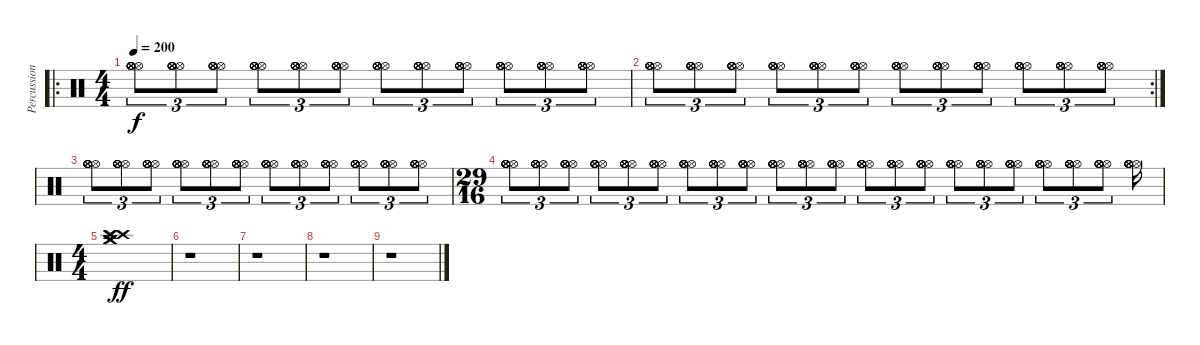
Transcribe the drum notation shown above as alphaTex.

\track ("Percussion" "Percussion") {instrument percussion}
\staff {score}
\articulation defaults
\ro
\ts (4 4)
\tempo 200
\clef neutral
\ks c
("Hi-Hat (open)" "Hi-Hat (open)" "Hi-Hat (open)" "Hi-Hat (open)" "Hi-Hat (open)" "Hi-Hat (open)").8{tu (3 2) dy f} ("Hi-Hat (open)" "Hi-Hat (open)" "Hi-Hat (open)" "Hi-Hat (open)" "Hi-Hat (open)" "Hi-Hat (open)").8{tu (3 2)} ("Hi-Hat (open)" "Hi-Hat (open)" "Hi-Hat (open)" "Hi-Hat (open)" "Hi-Hat (open)" "Hi-Hat (open)").8{tu (3 2)} ("Hi-Hat (open)" "Hi-Hat (open)" "Hi-Hat (open)" "Hi-Hat (open)" "Hi-Hat (open)" "Hi-Hat (open)").8{tu (3 2)} ("Hi-Hat (open)" "Hi-Hat (open)" "Hi-Hat (open)" "Hi-Hat (open)" "Hi-Hat (open)" "Hi-Hat (open)").8{tu (3 2)} ("Hi-Hat (open)" "Hi-Hat (open)" "Hi-Hat (open)" "Hi-Hat (open)" "Hi-Hat (open)" "Hi-Hat (open)").8{tu (3 2)} ("Hi-Hat (open)" "Hi-Hat (open)" "Hi-Hat (open)" "Hi-Hat (open)" "Hi-Hat (open)" "Hi-Hat (open)").8{tu (3 2)} ("Hi-Hat (open)" "Hi-Hat (open)" "Hi-Hat (open)" "Hi-Hat (open)" "Hi-Hat (open)" "Hi-Hat (open)").8{tu (3 2)} ("Hi-Hat (open)" "Hi-Hat (open)" "Hi-Hat (open)" "Hi-Hat (open)" "Hi-Hat (open)" "Hi-Hat (open)").8{tu (3 2)} ("Hi-Hat (open)" "Hi-Hat (open)" "Hi-Hat (open)" "Hi-Hat (open)" "Hi-Hat (open)" "Hi-Hat (open)").8{tu (3 2)} ("Hi-Hat (open)" "Hi-Hat (open)" "Hi-Hat (open)" "Hi-Hat (open)" "Hi-Hat (open)" "Hi-Hat (open)").8{tu (3 2)} ("Hi-Hat (open)" "Hi-Hat (open)" "Hi-Hat (open)" "Hi-Hat (open)" "Hi-Hat (open)" "Hi-Hat (open)").8{tu (3 2)} |
\rc 2
("Hi-Hat (open)" "Hi-Hat (open)" "Hi-Hat (open)" "Hi-Hat (open)" "Hi-Hat (open)" "Hi-Hat (open)").8{tu (3 2)} ("Hi-Hat (open)" "Hi-Hat (open)" "Hi-Hat (open)" "Hi-Hat (open)" "Hi-Hat (open)" "Hi-Hat (open)").8{tu (3 2)} ("Hi-Hat (open)" "Hi-Hat (open)" "Hi-Hat (open)" "Hi-Hat (open)" "Hi-Hat (open)" "Hi-Hat (open)").8{tu (3 2)} ("Hi-Hat (open)" "Hi-Hat (open)" "Hi-Hat (open)" "Hi-Hat (open)" "Hi-Hat (open)" "Hi-Hat (open)").8{tu (3 2)} ("Hi-Hat (open)" "Hi-Hat (open)" "Hi-Hat (open)" "Hi-Hat (open)" "Hi-Hat (open)" "Hi-Hat (open)").8{tu (3 2)} ("Hi-Hat (open)" "Hi-Hat (open)" "Hi-Hat (open)" "Hi-Hat (open)" "Hi-Hat (open)" "Hi-Hat (open)").8{tu (3 2)} ("Hi-Hat (open)" "Hi-Hat (open)" "Hi-Hat (open)" "Hi-Hat (open)" "Hi-Hat (open)" "Hi-Hat (open)").8{tu (3 2)} ("Hi-Hat (open)" "Hi-Hat (open)" "Hi-Hat (open)" "Hi-Hat (open)" "Hi-Hat (open)" "Hi-Hat (open)").8{tu (3 2)} ("Hi-Hat (open)" "Hi-Hat (open)" "Hi-Hat (open)" "Hi-Hat (open)" "Hi-Hat (open)" "Hi-Hat (open)").8{tu (3 2)} ("Hi-Hat (open)" "Hi-Hat (open)" "Hi-Hat (open)" "Hi-Hat (open)" "Hi-Hat (open)" "Hi-Hat (open)").8{tu (3 2)} ("Hi-Hat (open)" "Hi-Hat (open)" "Hi-Hat (open)" "Hi-Hat (open)" "Hi-Hat (open)" "Hi-Hat (open)").8{tu (3 2)} ("Hi-Hat (open)" "Hi-Hat (open)" "Hi-Hat (open)" "Hi-Hat (open)" "Hi-Hat (open)" "Hi-Hat (open)").8{tu (3 2)} |
("Hi-Hat (open)" "Hi-Hat (open)" "Hi-Hat (open)" "Hi-Hat (open)" "Hi-Hat (open)" "Hi-Hat (open)").8{tu (3 2)} ("Hi-Hat (open)" "Hi-Hat (open)" "Hi-Hat (open)" "Hi-Hat (open)" "Hi-Hat (open)" "Hi-Hat (open)").8{tu (3 2)} ("Hi-Hat (open)" "Hi-Hat (open)" "Hi-Hat (open)" "Hi-Hat (open)" "Hi-Hat (open)" "Hi-Hat (open)").8{tu (3 2)} ("Hi-Hat (open)" "Hi-Hat (open)" "Hi-Hat (open)" "Hi-Hat (open)" "Hi-Hat (open)" "Hi-Hat (open)").8{tu (3 2)} ("Hi-Hat (open)" "Hi-Hat (open)" "Hi-Hat (open)" "Hi-Hat (open)" "Hi-Hat (open)" "Hi-Hat (open)").8{tu (3 2)} ("Hi-Hat (open)" "Hi-Hat (open)" "Hi-Hat (open)" "Hi-Hat (open)" "Hi-Hat (open)" "Hi-Hat (open)").8{tu (3 2)} ("Hi-Hat (open)" "Hi-Hat (open)" "Hi-Hat (open)" "Hi-Hat (open)" "Hi-Hat (open)" "Hi-Hat (open)").8{tu (3 2)} ("Hi-Hat (open)" "Hi-Hat (open)" "Hi-Hat (open)" "Hi-Hat (open)" "Hi-Hat (open)" "Hi-Hat (open)").8{tu (3 2)} ("Hi-Hat (open)" "Hi-Hat (open)" "Hi-Hat (open)" "Hi-Hat (open)" "Hi-Hat (open)" "Hi-Hat (open)").8{tu (3 2)} ("Hi-Hat (open)" "Hi-Hat (open)" "Hi-Hat (open)" "Hi-Hat (open)" "Hi-Hat (open)" "Hi-Hat (open)").8{tu (3 2)} ("Hi-Hat (open)" "Hi-Hat (open)" "Hi-Hat (open)" "Hi-Hat (open)" "Hi-Hat (open)" "Hi-Hat (open)").8{tu (3 2)} ("Hi-Hat (open)" "Hi-Hat (open)" "Hi-Hat (open)" "Hi-Hat (open)" "Hi-Hat (open)" "Hi-Hat (open)").8{tu (3 2)} |
\ts (29 16)
("Hi-Hat (open)" "Hi-Hat (open)" "Hi-Hat (open)" "Hi-Hat (open)" "Hi-Hat (open)" "Hi-Hat (open)").8{tu (3 2)} ("Hi-Hat (open)" "Hi-Hat (open)" "Hi-Hat (open)" "Hi-Hat (open)" "Hi-Hat (open)" "Hi-Hat (open)").8{tu (3 2)} ("Hi-Hat (open)" "Hi-Hat (open)" "Hi-Hat (open)" "Hi-Hat (open)" "Hi-Hat (open)" "Hi-Hat (open)").8{tu (3 2)} ("Hi-Hat (open)" "Hi-Hat (open)" "Hi-Hat (open)" "Hi-Hat (open)" "Hi-Hat (open)" "Hi-Hat (open)").8{tu (3 2)} ("Hi-Hat (open)" "Hi-Hat (open)" "Hi-Hat (open)" "Hi-Hat (open)" "Hi-Hat (open)" "Hi-Hat (open)").8{tu (3 2)} ("Hi-Hat (open)" "Hi-Hat (open)" "Hi-Hat (open)" "Hi-Hat (open)" "Hi-Hat (open)" "Hi-Hat (open)").8{tu (3 2)} ("Hi-Hat (open)" "Hi-Hat (open)" "Hi-Hat (open)" "Hi-Hat (open)" "Hi-Hat (open)" "Hi-Hat (open)").8{tu (3 2)} ("Hi-Hat (open)" "Hi-Hat (open)" "Hi-Hat (open)" "Hi-Hat (open)" "Hi-Hat (open)" "Hi-Hat (open)").8{tu (3 2)} ("Hi-Hat (open)" "Hi-Hat (open)" "Hi-Hat (open)" "Hi-Hat (open)" "Hi-Hat (open)" "Hi-Hat (open)").8{tu (3 2)} ("Hi-Hat (open)" "Hi-Hat (open)" "Hi-Hat (open)" "Hi-Hat (open)" "Hi-Hat (open)" "Hi-Hat (open)").8{tu (3 2)} ("Hi-Hat (open)" "Hi-Hat (open)" "Hi-Hat (open)" "Hi-Hat (open)" "Hi-Hat (open)" "Hi-Hat (open)").8{tu (3 2)} ("Hi-Hat (open)" "Hi-Hat (open)" "Hi-Hat (open)" "Hi-Hat (open)" "Hi-Hat (open)" "Hi-Hat (open)").8{tu (3 2)} ("Hi-Hat (open)" "Hi-Hat (open)" "Hi-Hat (open)" "Hi-Hat (open)" "Hi-Hat (open)" "Hi-Hat (open)").8{tu (3 2)} ("Hi-Hat (open)" "Hi-Hat (open)" "Hi-Hat (open)" "Hi-Hat (open)" "Hi-Hat (open)" "Hi-Hat (open)").8{tu (3 2)} ("Hi-Hat (open)" "Hi-Hat (open)" "Hi-Hat (open)" "Hi-Hat (open)" "Hi-Hat (open)" "Hi-Hat (open)").8{tu (3 2)} ("Hi-Hat (open)" "Hi-Hat (open)" "Hi-Hat (open)" "Hi-Hat (open)" "Hi-Hat (open)" "Hi-Hat (open)").8{tu (3 2)} ("Hi-Hat (open)" "Hi-Hat (open)" "Hi-Hat (open)" "Hi-Hat (open)" "Hi-Hat (open)" "Hi-Hat (open)").8{tu (3 2)} ("Hi-Hat (open)" "Hi-Hat (open)" "Hi-Hat (open)" "Hi-Hat (open)" "Hi-Hat (open)" "Hi-Hat (open)").8{tu (3 2)} ("Hi-Hat (open)" "Hi-Hat (open)" "Hi-Hat (open)" "Hi-Hat (open)" "Hi-Hat (open)" "Hi-Hat (open)").8{tu (3 2)} ("Hi-Hat (open)" "Hi-Hat (open)" "Hi-Hat (open)" "Hi-Hat (open)" "Hi-Hat (open)" "Hi-Hat (open)").8{tu (3 2)} ("Hi-Hat (open)" "Hi-Hat (open)" "Hi-Hat (open)" "Hi-Hat (open)" "Hi-Hat (open)" "Hi-Hat (open)").8{tu (3 2)} ("Hi-Hat (open)" "Hi-Hat (open)" "Hi-Hat (open)" "Hi-Hat (open)" "Hi-Hat (open)" "Hi-Hat (open)").16 |
\ts (4 4)
("Crash high (hit)" "Crash high (hit)" "Crash high (hit)" "Crash medium (hit)" "Crash medium (hit)" "Crash medium (hit)").1{dy ff} |
r.1 |
r.1 |
r.1 |
r.1
